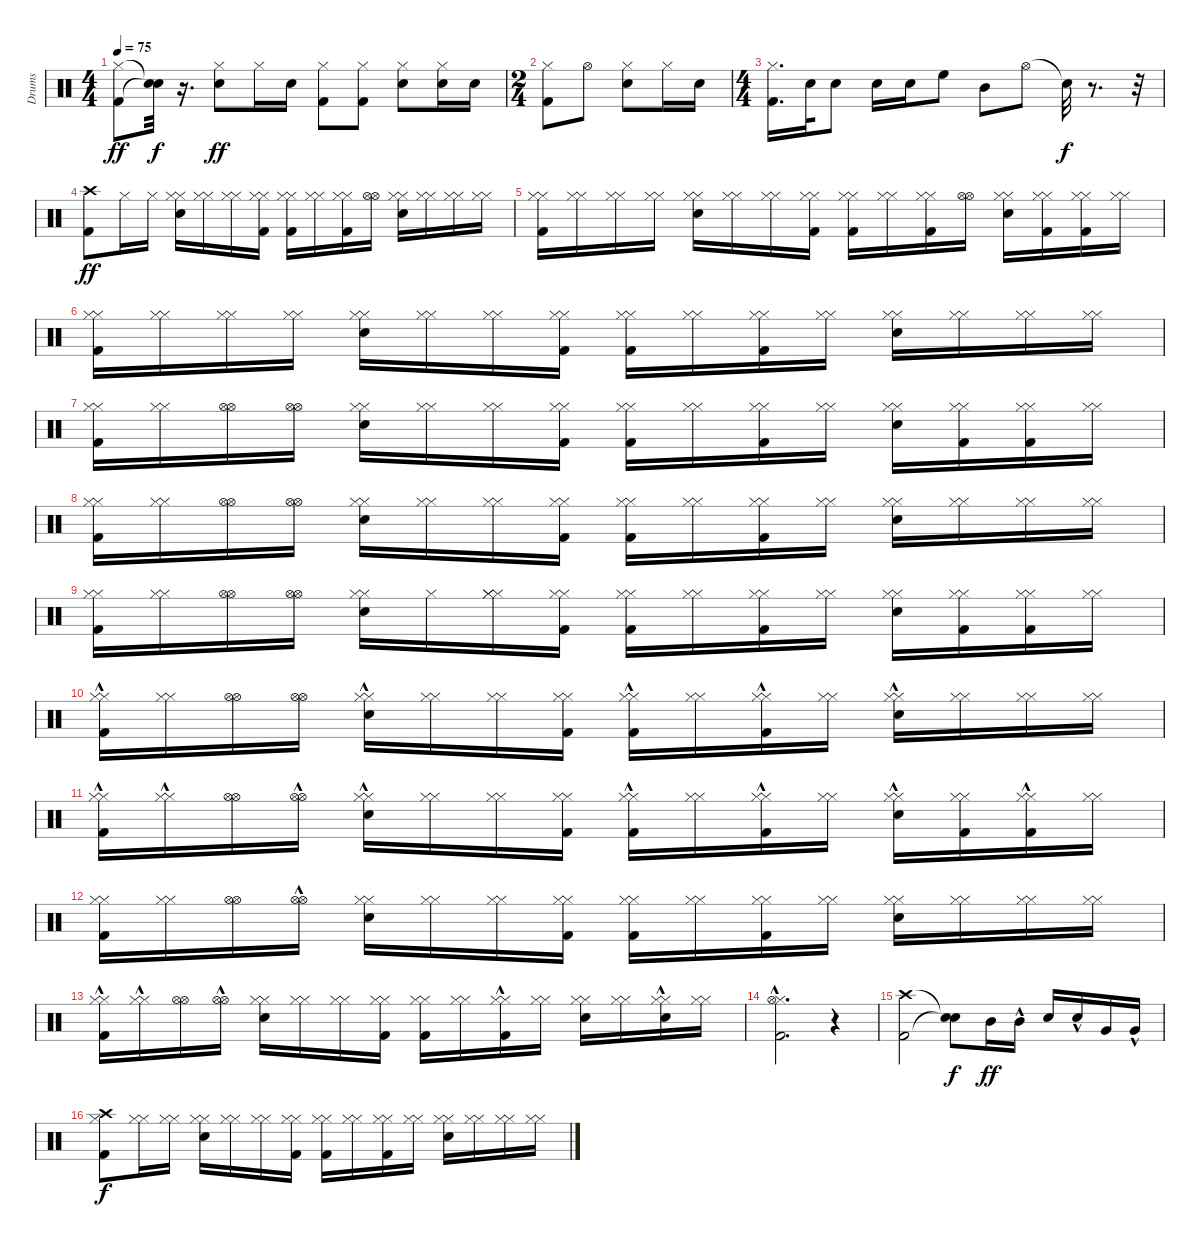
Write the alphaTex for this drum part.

\track ("Drums" "Drums") {instrument percussion}
\staff {score}
\articulation defaults
\ts (4 4)
\tempo 75
\clef neutral
\ks c
("Kick (hit) 2" "Hi-Hat (closed)").8{dy ff} ("Snare (hit)"{t} "Snare (hit)"{t}).32{dy f} r.16{d} ("Snare (hit) 2" "Hi-Hat (closed)").8{dy ff} "Hi-Hat (closed)".16 "Snare (hit) 2".16 ("Kick (hit) 2" "Hi-Hat (closed)").8 ("Kick (hit) 2" "Hi-Hat (closed)").8 ("Snare (hit) 2" "Hi-Hat (closed)").8 ("Hi-Hat (closed)" "Snare (hit) 2").16 "Snare (hit) 2".16 |
\ts (2 4)
("Kick (hit) 2" "Hi-Hat (closed)").8 "Hi-Hat (open)".8 ("Snare (hit) 2" "Hi-Hat (closed)").8 "Hi-Hat (closed)".16 "Snare (hit) 2".16 |
\ts (4 4)
("Kick (hit) 2" "Hi-Hat (closed)").16{d} "Snare (hit) 2".32 "Snare (hit) 2".8 "Snare (hit) 2".16 "Snare (hit) 2".16 "High Floor Tom (hit)".8 "Mid Tom (hit)".8 "Hi-Hat (open)".8 "Snare (hit)"{t}.32{dy f} r.8{d} r.32 |
("Kick (hit) 2" "Crash high (hit)").8{dy ff} "Hi-Hat (closed)".16 "Hi-Hat (closed)".16 ("Hi-Hat (closed)" "Snare (hit) 2" "Hi-Hat (closed)").16 ("Hi-Hat (closed)" "Hi-Hat (closed)").16 ("Hi-Hat (closed)" "Hi-Hat (closed)").16 ("Hi-Hat (closed)" "Kick (hit) 2" "Hi-Hat (closed)").16 ("Hi-Hat (closed)" "Kick (hit) 2" "Hi-Hat (closed)").16 ("Hi-Hat (closed)" "Hi-Hat (closed)").16 ("Hi-Hat (closed)" "Kick (hit) 2" "Hi-Hat (closed)").16 ("Hi-Hat (open)" "Hi-Hat (open)").16 ("Hi-Hat (closed)" "Snare (hit) 2" "Hi-Hat (closed)").16 ("Hi-Hat (closed)" "Hi-Hat (closed)").16 ("Hi-Hat (closed)" "Hi-Hat (closed)").16 ("Hi-Hat (closed)" "Hi-Hat (closed)").16 |
("Kick (hit) 2" "Hi-Hat (closed)" "Hi-Hat (closed)").16 ("Hi-Hat (closed)" "Hi-Hat (closed)").16 ("Hi-Hat (closed)" "Hi-Hat (closed)").16 ("Hi-Hat (closed)" "Hi-Hat (closed)").16 ("Snare (hit) 2" "Hi-Hat (closed)" "Hi-Hat (closed)").16 ("Hi-Hat (closed)" "Hi-Hat (closed)").16 ("Hi-Hat (closed)" "Hi-Hat (closed)").16 ("Kick (hit) 2" "Hi-Hat (closed)" "Hi-Hat (closed)").16 ("Kick (hit) 2" "Hi-Hat (closed)" "Hi-Hat (closed)").16 ("Hi-Hat (closed)" "Hi-Hat (closed)").16 ("Kick (hit) 2" "Hi-Hat (closed)" "Hi-Hat (closed)").16 ("Hi-Hat (open)" "Hi-Hat (open)").16 ("Snare (hit) 2" "Hi-Hat (closed)" "Hi-Hat (closed)").16 ("Kick (hit) 2" "Hi-Hat (closed)" "Hi-Hat (closed)").16 ("Kick (hit) 2" "Hi-Hat (closed)" "Hi-Hat (closed)").16 ("Hi-Hat (closed)" "Hi-Hat (closed)").16 |
("Hi-Hat (closed)" "Kick (hit) 2" "Hi-Hat (closed)").16 ("Hi-Hat (closed)" "Hi-Hat (closed)").16 ("Hi-Hat (closed)" "Hi-Hat (closed)").16 ("Hi-Hat (closed)" "Hi-Hat (closed)").16 ("Hi-Hat (closed)" "Snare (hit) 2" "Hi-Hat (closed)").16 ("Hi-Hat (closed)" "Hi-Hat (closed)").16 ("Hi-Hat (closed)" "Hi-Hat (closed)").16 ("Hi-Hat (closed)" "Kick (hit) 2" "Hi-Hat (closed)").16 ("Hi-Hat (closed)" "Kick (hit) 2" "Hi-Hat (closed)").16 ("Hi-Hat (closed)" "Hi-Hat (closed)").16 ("Hi-Hat (closed)" "Kick (hit) 2" "Hi-Hat (closed)").16 ("Hi-Hat (closed)" "Hi-Hat (closed)").16 ("Hi-Hat (closed)" "Snare (hit) 2" "Hi-Hat (closed)").16 ("Hi-Hat (closed)" "Hi-Hat (closed)").16 ("Hi-Hat (closed)" "Hi-Hat (closed)").16 ("Hi-Hat (closed)" "Hi-Hat (closed)").16 |
("Hi-Hat (closed)" "Hi-Hat (closed)" "Kick (hit) 2").16 ("Hi-Hat (closed)" "Hi-Hat (closed)").16 ("Hi-Hat (open)" "Hi-Hat (open)").16 ("Hi-Hat (open)" "Hi-Hat (open)").16 ("Hi-Hat (closed)" "Snare (hit) 2" "Hi-Hat (closed)").16 ("Hi-Hat (closed)" "Hi-Hat (closed)").16 ("Hi-Hat (closed)" "Hi-Hat (closed)").16 ("Hi-Hat (closed)" "Kick (hit) 2" "Hi-Hat (closed)").16 ("Hi-Hat (closed)" "Kick (hit) 2" "Hi-Hat (closed)").16 ("Hi-Hat (closed)" "Hi-Hat (closed)").16 ("Hi-Hat (closed)" "Kick (hit) 2" "Hi-Hat (closed)").16 ("Hi-Hat (closed)" "Hi-Hat (closed)").16 ("Hi-Hat (closed)" "Snare (hit) 2" "Hi-Hat (closed)").16 ("Hi-Hat (closed)" "Kick (hit) 2" "Hi-Hat (closed)").16 ("Kick (hit) 2" "Hi-Hat (closed)" "Hi-Hat (closed)").16 ("Hi-Hat (closed)" "Hi-Hat (closed)").16 |
("Hi-Hat (closed)" "Kick (hit) 2" "Hi-Hat (closed)").16 ("Hi-Hat (closed)" "Hi-Hat (closed)").16 ("Hi-Hat (open)" "Hi-Hat (open)").16 ("Hi-Hat (open)" "Hi-Hat (open)").16 ("Hi-Hat (closed)" "Snare (hit) 2" "Hi-Hat (closed)").16 ("Hi-Hat (closed)" "Hi-Hat (closed)").16 ("Hi-Hat (closed)" "Hi-Hat (closed)").16 ("Hi-Hat (closed)" "Kick (hit) 2" "Hi-Hat (closed)").16 ("Hi-Hat (closed)" "Kick (hit) 2" "Hi-Hat (closed)").16 ("Hi-Hat (closed)" "Hi-Hat (closed)").16 ("Hi-Hat (closed)" "Kick (hit) 2" "Hi-Hat (closed)").16 ("Hi-Hat (closed)" "Hi-Hat (closed)").16 ("Hi-Hat (closed)" "Snare (hit) 2" "Hi-Hat (closed)").16 ("Hi-Hat (closed)" "Hi-Hat (closed)").16 ("Hi-Hat (closed)" "Hi-Hat (closed)").16 ("Hi-Hat (closed)" "Hi-Hat (closed)").16 |
("Kick (hit) 2" "Hi-Hat (closed)" "Hi-Hat (closed)").16 ("Hi-Hat (closed)" "Hi-Hat (closed)").16 ("Hi-Hat (open)" "Hi-Hat (open)").16 ("Hi-Hat (open)" "Hi-Hat (open)").16 ("Hi-Hat (closed)" "Snare (hit) 2" "Hi-Hat (closed)").16 "Hi-Hat (closed)".16 ("Hi-Hat (closed)" "Hi-Hat (closed)" "Hi-Hat (closed)").16 ("Hi-Hat (closed)" "Kick (hit) 2" "Hi-Hat (closed)").16 ("Hi-Hat (closed)" "Kick (hit) 2" "Hi-Hat (closed)").16 ("Hi-Hat (closed)" "Hi-Hat (closed)").16 ("Hi-Hat (closed)" "Kick (hit) 2" "Hi-Hat (closed)").16 ("Hi-Hat (closed)" "Hi-Hat (closed)").16 ("Hi-Hat (closed)" "Snare (hit) 2" "Hi-Hat (closed)").16 ("Hi-Hat (closed)" "Kick (hit) 2" "Hi-Hat (closed)").16 ("Kick (hit) 2" "Hi-Hat (closed)" "Hi-Hat (closed)").16 ("Hi-Hat (closed)" "Hi-Hat (closed)").16 |
("Hi-Hat (closed)" "Kick (hit) 2"{hac} "Hi-Hat (closed)").16 ("Hi-Hat (closed)" "Hi-Hat (closed)").16 ("Hi-Hat (open)" "Hi-Hat (open)").16 ("Hi-Hat (open)" "Hi-Hat (open)").16 ("Hi-Hat (closed)" "Snare (hit) 2"{hac} "Hi-Hat (closed)").16 ("Hi-Hat (closed)" "Hi-Hat (closed)").16 ("Hi-Hat (closed)" "Hi-Hat (closed)").16 ("Hi-Hat (closed)" "Kick (hit) 2" "Hi-Hat (closed)").16 ("Hi-Hat (closed)" "Kick (hit) 2"{hac} "Hi-Hat (closed)").16 ("Hi-Hat (closed)" "Hi-Hat (closed)").16 ("Hi-Hat (closed)" "Kick (hit) 2"{hac} "Hi-Hat (closed)").16 ("Hi-Hat (closed)" "Hi-Hat (closed)").16 ("Hi-Hat (closed)" "Snare (hit) 2"{hac} "Hi-Hat (closed)").16 ("Hi-Hat (closed)" "Hi-Hat (closed)").16 ("Hi-Hat (closed)" "Hi-Hat (closed)").16 ("Hi-Hat (closed)" "Hi-Hat (closed)").16 |
("Hi-Hat (closed)" "Kick (hit) 2"{hac} "Hi-Hat (closed)").16 ("Hi-Hat (closed)"{hac} "Hi-Hat (closed)"{hac}).16 ("Hi-Hat (open)" "Hi-Hat (open)").16 ("Hi-Hat (open)"{hac} "Hi-Hat (open)"{hac}).16 ("Hi-Hat (closed)" "Snare (hit) 2"{hac} "Hi-Hat (closed)").16 ("Hi-Hat (closed)" "Hi-Hat (closed)").16 ("Hi-Hat (closed)" "Hi-Hat (closed)").16 ("Hi-Hat (closed)" "Kick (hit) 2" "Hi-Hat (closed)").16 ("Hi-Hat (closed)" "Kick (hit) 2"{hac} "Hi-Hat (closed)").16 ("Hi-Hat (closed)" "Hi-Hat (closed)").16 ("Hi-Hat (closed)" "Kick (hit) 2"{hac} "Hi-Hat (closed)").16 ("Hi-Hat (closed)" "Hi-Hat (closed)").16 ("Hi-Hat (closed)" "Snare (hit) 2"{hac} "Hi-Hat (closed)").16 ("Hi-Hat (closed)" "Kick (hit) 2" "Hi-Hat (closed)").16 ("Hi-Hat (closed)" "Kick (hit) 2"{hac} "Hi-Hat (closed)").16 ("Hi-Hat (closed)" "Hi-Hat (closed)").16 |
("Hi-Hat (closed)" "Kick (hit) 2" "Hi-Hat (closed)").16 ("Hi-Hat (closed)" "Hi-Hat (closed)").16 ("Hi-Hat (open)" "Hi-Hat (open)").16 ("Hi-Hat (open)"{hac} "Hi-Hat (open)"{hac}).16 ("Hi-Hat (closed)" "Snare (hit) 2" "Hi-Hat (closed)").16 ("Hi-Hat (closed)" "Hi-Hat (closed)").16 ("Hi-Hat (closed)" "Hi-Hat (closed)").16 ("Hi-Hat (closed)" "Kick (hit) 2" "Hi-Hat (closed)").16 ("Hi-Hat (closed)" "Kick (hit) 2" "Hi-Hat (closed)").16 ("Hi-Hat (closed)" "Hi-Hat (closed)").16 ("Hi-Hat (closed)" "Kick (hit) 2" "Hi-Hat (closed)").16 ("Hi-Hat (closed)" "Hi-Hat (closed)").16 ("Hi-Hat (closed)" "Snare (hit) 2" "Hi-Hat (closed)").16 ("Hi-Hat (closed)" "Hi-Hat (closed)").16 ("Hi-Hat (closed)" "Hi-Hat (closed)").16 ("Hi-Hat (closed)" "Hi-Hat (closed)").16 |
("Hi-Hat (closed)" "Kick (hit) 2"{hac} "Hi-Hat (closed)").16 ("Hi-Hat (closed)"{hac} "Hi-Hat (closed)"{hac}).16 ("Hi-Hat (open)" "Hi-Hat (open)").16 ("Hi-Hat (open)"{hac} "Hi-Hat (open)"{hac}).16 ("Hi-Hat (closed)" "Snare (hit) 2" "Hi-Hat (closed)").16 ("Hi-Hat (closed)" "Hi-Hat (closed)").16 ("Hi-Hat (closed)" "Hi-Hat (closed)").16 ("Hi-Hat (closed)" "Kick (hit) 2" "Hi-Hat (closed)").16 ("Hi-Hat (closed)" "Kick (hit) 2" "Hi-Hat (closed)").16 ("Hi-Hat (closed)" "Hi-Hat (closed)").16 ("Kick (hit) 2"{hac} "Hi-Hat (closed)" "Hi-Hat (closed)").16 ("Hi-Hat (closed)" "Hi-Hat (closed)").16 ("Hi-Hat (closed)" "Snare (hit) 2" "Hi-Hat (closed)").16 ("Hi-Hat (closed)" "Hi-Hat (closed)").16 ("Snare (hit) 2"{hac} "Hi-Hat (closed)" "Hi-Hat (closed)").16 ("Hi-Hat (closed)" "Hi-Hat (closed)").16 |
("Hi-Hat (closed)"{hac} "Hi-Hat (open)"{hac} "Kick (hit) 2"{hac}).2{d} r.4 |
("Kick (hit) 2" "Crash high (hit)").2 ("Snare (hit)"{t} "Snare (hit)"{t}).8{dy f} "Mid Tom (hit)".16{dy ff} "Mid Tom (hit)"{hac}.16 "Snare (hit) 2".16 "Snare (hit) 2"{hac}.16 "Very Low Tom (hit)".16 "Very Low Tom (hit)"{hac}.16 |
("Kick (hit) 2" "Hi-Hat (closed)" "Crash high (hit)").8{dy f} ("Hi-Hat (closed)" "Hi-Hat (closed)").16 ("Hi-Hat (closed)" "Hi-Hat (closed)").16 ("Hi-Hat (closed)" "Snare (hit) 2" "Hi-Hat (closed)").16 ("Hi-Hat (closed)" "Hi-Hat (closed)").16 ("Hi-Hat (closed)" "Hi-Hat (closed)").16 ("Hi-Hat (closed)" "Kick (hit) 2" "Hi-Hat (closed)").16 ("Hi-Hat (closed)" "Kick (hit) 2" "Hi-Hat (closed)").16 ("Hi-Hat (closed)" "Hi-Hat (closed)").16 ("Hi-Hat (closed)" "Kick (hit) 2" "Hi-Hat (closed)").16 ("Hi-Hat (closed)" "Hi-Hat (closed)").16 ("Hi-Hat (closed)" "Snare (hit) 2" "Hi-Hat (closed)").16 ("Hi-Hat (closed)" "Hi-Hat (closed)").16 ("Hi-Hat (closed)" "Hi-Hat (closed)").16 ("Hi-Hat (closed)" "Hi-Hat (closed)").16
